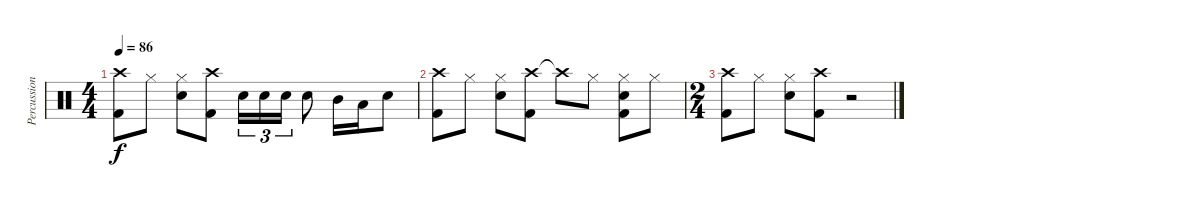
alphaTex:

\track ("Percussion" "Percussion") {instrument percussion}
\staff {score}
\articulation defaults
\ts (4 4)
\tempo 86
\clef neutral
\ks c
("Crash high (hit)" "Kick (hit) 2").8{dy f} "Hi-Hat (closed)".8 ("Hi-Hat (closed)" "Snare (hit) 2").8 ("Crash high (hit)" "Kick (hit) 2").8 "Snare (hit) 2".16{tu (3 2)} "Snare (hit) 2".16{tu (3 2)} "Snare (hit) 2".16{tu (3 2)} "Snare (hit) 2".8 "Mid Tom (hit)".16 "Low Floor Tom (hit)".16 "Snare (hit) 2".8 |
("Crash high (hit)" "Kick (hit) 2").8 "Hi-Hat (closed)".8 ("Hi-Hat (closed)" "Snare (hit) 2").8 ("Crash high (hit)" "Kick (hit) 2").8 "Crash high (hit)"{t}.8 "Hi-Hat (closed)".8 ("Hi-Hat (closed)" "Snare (hit) 2" "Kick (hit) 2").8 "Hi-Hat (closed)".8 |
\ts (2 4)
("Crash high (hit)" "Kick (hit) 2").8 "Hi-Hat (closed)".8 ("Hi-Hat (closed)" "Snare (hit) 2").8 ("Crash high (hit)" "Kick (hit) 2").8 r.2
